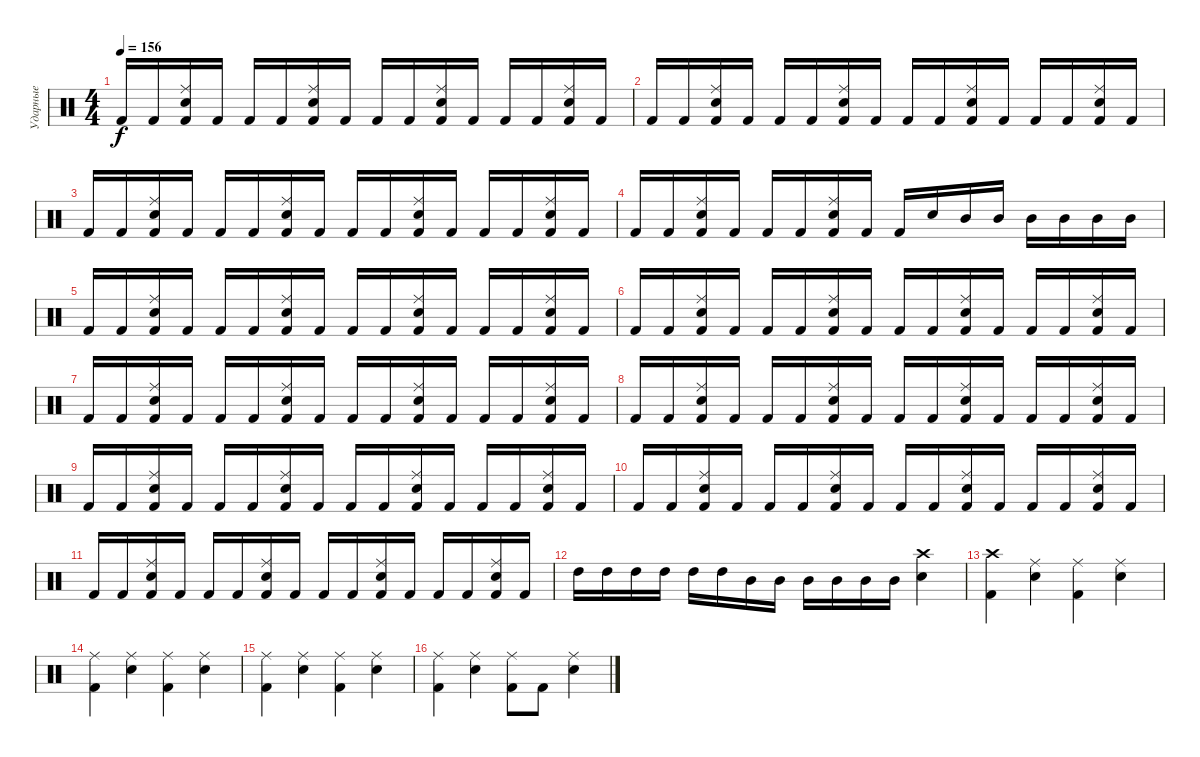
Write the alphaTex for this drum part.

\track ("Ударные" "Ударные") {instrument percussion}
\staff {score}
\articulation defaults
\ts (4 4)
\tempo 156
\clef neutral
\ks c "Kick (hit) 2".16{dy f} "Kick (hit) 2".16
("Ride (middle)" "Electric Snare (hit)" "Kick (hit) 2").16 "Kick (hit) 2".16 "Kick (hit) 2".16 "Kick (hit) 2".16 ("Ride (middle)" "Electric Snare (hit)" "Kick (hit) 2").16 "Kick (hit) 2".16 "Kick (hit) 2".16 "Kick (hit) 2".16 ("Ride (middle)" "Electric Snare (hit)" "Kick (hit) 2").16 "Kick (hit) 2".16 "Kick (hit) 2".16 "Kick (hit) 2".16 ("Ride (middle)" "Electric Snare (hit)" "Kick (hit) 2").16 "Kick (hit) 2".16 |
"Kick (hit) 2".16 "Kick (hit) 2".16 ("Ride (middle)" "Electric Snare (hit)" "Kick (hit) 2").16 "Kick (hit) 2".16 "Kick (hit) 2".16 "Kick (hit) 2".16 ("Ride (middle)" "Electric Snare (hit)" "Kick (hit) 2").16 "Kick (hit) 2".16 "Kick (hit) 2".16 "Kick (hit) 2".16 ("Ride (middle)" "Electric Snare (hit)" "Kick (hit) 2").16 "Kick (hit) 2".16 "Kick (hit) 2".16 "Kick (hit) 2".16 ("Ride (middle)" "Electric Snare (hit)" "Kick (hit) 2").16 "Kick (hit) 2".16 |
"Kick (hit) 2".16 "Kick (hit) 2".16 ("Ride (middle)" "Electric Snare (hit)" "Kick (hit) 2").16 "Kick (hit) 2".16 "Kick (hit) 2".16 "Kick (hit) 2".16 ("Ride (middle)" "Electric Snare (hit)" "Kick (hit) 2").16 "Kick (hit) 2".16 "Kick (hit) 2".16 "Kick (hit) 2".16 ("Ride (middle)" "Electric Snare (hit)" "Kick (hit) 2").16 "Kick (hit) 2".16 "Kick (hit) 2".16 "Kick (hit) 2".16 ("Ride (middle)" "Electric Snare (hit)" "Kick (hit) 2").16 "Kick (hit) 2".16 |
"Kick (hit) 2".16 "Kick (hit) 2".16 ("Ride (middle)" "Electric Snare (hit)" "Kick (hit) 2").16 "Kick (hit) 2".16 "Kick (hit) 2".16 "Kick (hit) 2".16 ("Ride (middle)" "Electric Snare (hit)" "Kick (hit) 2").16 "Kick (hit) 2".16 "Kick (hit) 2".16 "Electric Snare (hit)".16 "Mid Tom (hit)".16 "Mid Tom (hit)".16 "Mid Tom (hit)".16 "Mid Tom (hit)".16 "Mid Tom (hit)".16 "Mid Tom (hit)".16 |
"Kick (hit) 2".16 "Kick (hit) 2".16 ("Ride (middle)" "Electric Snare (hit)" "Kick (hit) 2").16 "Kick (hit) 2".16 "Kick (hit) 2".16 "Kick (hit) 2".16 ("Ride (middle)" "Electric Snare (hit)" "Kick (hit) 2").16 "Kick (hit) 2".16 "Kick (hit) 2".16 "Kick (hit) 2".16 ("Ride (middle)" "Electric Snare (hit)" "Kick (hit) 2").16 "Kick (hit) 2".16 "Kick (hit) 2".16 "Kick (hit) 2".16 ("Ride (middle)" "Electric Snare (hit)" "Kick (hit) 2").16 "Kick (hit) 2".16 |
"Kick (hit) 2".16 "Kick (hit) 2".16 ("Ride (middle)" "Electric Snare (hit)" "Kick (hit) 2").16 "Kick (hit) 2".16 "Kick (hit) 2".16 "Kick (hit) 2".16 ("Ride (middle)" "Electric Snare (hit)" "Kick (hit) 2").16 "Kick (hit) 2".16 "Kick (hit) 2".16 "Kick (hit) 2".16 ("Ride (middle)" "Electric Snare (hit)" "Kick (hit) 2").16 "Kick (hit) 2".16 "Kick (hit) 2".16 "Kick (hit) 2".16 ("Ride (middle)" "Electric Snare (hit)" "Kick (hit) 2").16 "Kick (hit) 2".16 |
"Kick (hit) 2".16 "Kick (hit) 2".16 ("Ride (middle)" "Electric Snare (hit)" "Kick (hit) 2").16 "Kick (hit) 2".16 "Kick (hit) 2".16 "Kick (hit) 2".16 ("Ride (middle)" "Electric Snare (hit)" "Kick (hit) 2").16 "Kick (hit) 2".16 "Kick (hit) 2".16 "Kick (hit) 2".16 ("Ride (middle)" "Electric Snare (hit)" "Kick (hit) 2").16 "Kick (hit) 2".16 "Kick (hit) 2".16 "Kick (hit) 2".16 ("Ride (middle)" "Electric Snare (hit)" "Kick (hit) 2").16 "Kick (hit) 2".16 |
"Kick (hit) 2".16 "Kick (hit) 2".16 ("Ride (middle)" "Electric Snare (hit)" "Kick (hit) 2").16 "Kick (hit) 2".16 "Kick (hit) 2".16 "Kick (hit) 2".16 ("Ride (middle)" "Electric Snare (hit)" "Kick (hit) 2").16 "Kick (hit) 2".16 "Kick (hit) 2".16 "Kick (hit) 2".16 ("Ride (middle)" "Electric Snare (hit)" "Kick (hit) 2").16 "Kick (hit) 2".16 "Kick (hit) 2".16 "Kick (hit) 2".16 ("Ride (middle)" "Electric Snare (hit)" "Kick (hit) 2").16 "Kick (hit) 2".16 |
"Kick (hit) 2".16 "Kick (hit) 2".16 ("Ride (middle)" "Electric Snare (hit)" "Kick (hit) 2").16 "Kick (hit) 2".16 "Kick (hit) 2".16 "Kick (hit) 2".16 ("Ride (middle)" "Electric Snare (hit)" "Kick (hit) 2").16 "Kick (hit) 2".16 "Kick (hit) 2".16 "Kick (hit) 2".16 ("Ride (middle)" "Electric Snare (hit)" "Kick (hit) 2").16 "Kick (hit) 2".16 "Kick (hit) 2".16 "Kick (hit) 2".16 ("Ride (middle)" "Electric Snare (hit)" "Kick (hit) 2").16 "Kick (hit) 2".16 |
"Kick (hit) 2".16 "Kick (hit) 2".16 ("Ride (middle)" "Electric Snare (hit)" "Kick (hit) 2").16 "Kick (hit) 2".16 "Kick (hit) 2".16 "Kick (hit) 2".16 ("Ride (middle)" "Electric Snare (hit)" "Kick (hit) 2").16 "Kick (hit) 2".16 "Kick (hit) 2".16 "Kick (hit) 2".16 ("Ride (middle)" "Electric Snare (hit)" "Kick (hit) 2").16 "Kick (hit) 2".16 "Kick (hit) 2".16 "Kick (hit) 2".16 ("Ride (middle)" "Electric Snare (hit)" "Kick (hit) 2").16 "Kick (hit) 2".16 |
"Kick (hit) 2".16 "Kick (hit) 2".16 ("Ride (middle)" "Electric Snare (hit)" "Kick (hit) 2").16 "Kick (hit) 2".16 "Kick (hit) 2".16 "Kick (hit) 2".16 ("Ride (middle)" "Electric Snare (hit)" "Kick (hit) 2").16 "Kick (hit) 2".16 "Kick (hit) 2".16 "Kick (hit) 2".16 ("Ride (middle)" "Electric Snare (hit)" "Kick (hit) 2").16 "Kick (hit) 2".16 "Kick (hit) 2".16 "Kick (hit) 2".16 ("Ride (middle)" "Electric Snare (hit)" "Kick (hit) 2").16 "Kick (hit) 2".16 |
"High Tom (hit)".16 "High Tom (hit)".16 "High Tom (hit)".16 "High Tom (hit)".16 "High Tom (hit)".16 "High Tom (hit)".16 "Mid Tom (hit)".16 "Mid Tom (hit)".16 "Mid Tom (hit)".16 "Mid Tom (hit)".16 "Mid Tom (hit)".16 "Mid Tom (hit)".16 ("Crash high (hit)" "Electric Snare (hit)").4 |
("Crash high (hit)" "Kick (hit) 2").4 ("Ride (middle)" "Electric Snare (hit)").4 ("Ride (middle)" "Kick (hit) 2").4 ("Ride (middle)" "Electric Snare (hit)").4 |
("Ride (middle)" "Kick (hit) 2").4 ("Ride (middle)" "Electric Snare (hit)").4 ("Ride (middle)" "Kick (hit) 2").4 ("Ride (middle)" "Electric Snare (hit)").4 |
("Ride (middle)" "Kick (hit) 2").4 ("Ride (middle)" "Electric Snare (hit)").4 ("Ride (middle)" "Kick (hit) 2").4 ("Ride (middle)" "Electric Snare (hit)").4 |
("Ride (middle)" "Kick (hit) 2").4 ("Ride (middle)" "Electric Snare (hit)").4 ("Ride (middle)" "Kick (hit) 2").8 "Kick (hit) 2".8 ("Ride (middle)" "Electric Snare (hit)").4
